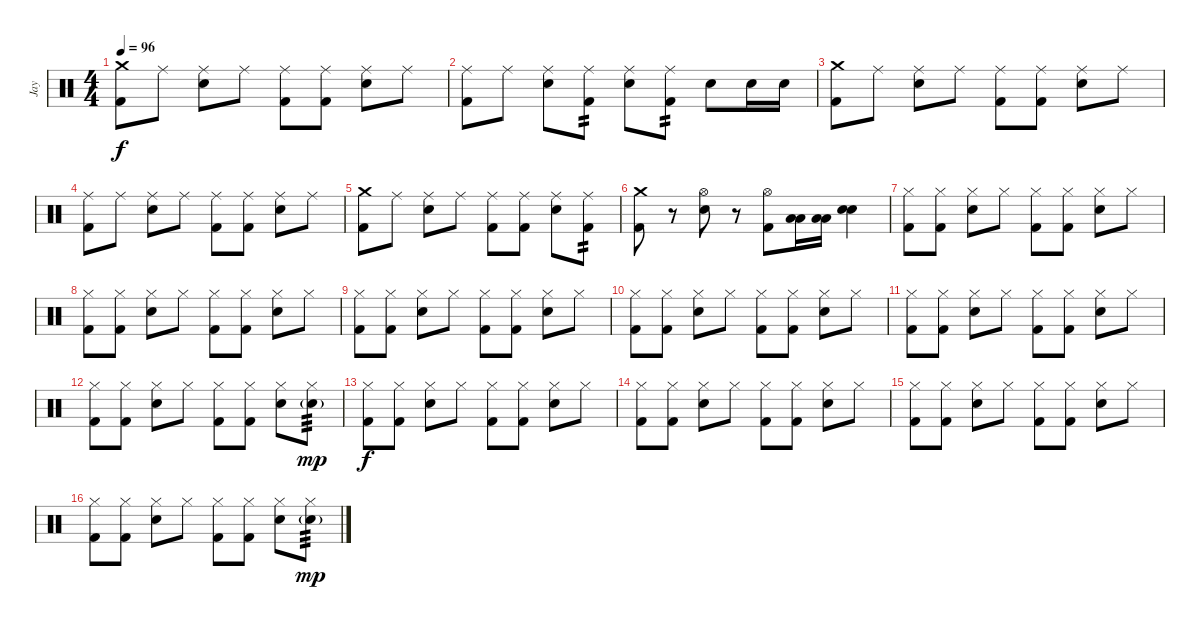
\track ("Jay" "Jay") {instrument percussion}
\staff {score}
\articulation defaults
\ts (4 4)
\tempo 96
\clef neutral
\ks c
("Crash medium (hit)" "Kick (hit) 2").8{dy f} "Ride (middle)".8 ("Ride (middle)" "Electric Snare (hit)").8 "Ride (middle)".8 ("Ride (middle)" "Kick (hit) 2").8 ("Ride (middle)" "Kick (hit) 2").8 ("Ride (middle)" "Electric Snare (hit)").8 "Ride (middle)".8 |
("Ride (middle)" "Kick (hit) 2").8 "Ride (middle)".8 ("Ride (middle)" "Electric Snare (hit)").8 ("Ride (middle)" "Kick (hit) 2").8{tp 2} ("Ride (middle)" "Electric Snare (hit)").8 ("Ride (middle)" "Kick (hit) 2").8{tp 2} "Electric Snare (hit)".8 "Electric Snare (hit)".16 "Electric Snare (hit)".16 |
("Crash medium (hit)" "Kick (hit) 2").8 "Ride (middle)".8 ("Ride (middle)" "Electric Snare (hit)").8 "Ride (middle)".8 ("Ride (middle)" "Kick (hit) 2").8 ("Ride (middle)" "Kick (hit) 2").8 ("Ride (middle)" "Electric Snare (hit)").8 "Ride (middle)".8 |
("Ride (middle)" "Kick (hit) 2").8 "Ride (middle)".8 ("Ride (middle)" "Electric Snare (hit)").8 "Ride (middle)".8 ("Ride (middle)" "Kick (hit) 2").8 ("Ride (middle)" "Kick (hit) 2").8 ("Ride (middle)" "Electric Snare (hit)").8 "Ride (middle)".8 |
("Crash medium (hit)" "Kick (hit) 2").8 "Ride (middle)".8 ("Ride (middle)" "Electric Snare (hit)").8 "Ride (middle)".8 ("Ride (middle)" "Kick (hit) 2").8 ("Ride (middle)" "Kick (hit) 2").8 ("Ride (middle)" "Electric Snare (hit)").8 ("Ride (middle)" "Kick (hit) 2").8{tp 2} |
("Crash medium (hit)" "Kick (hit) 2").8 r.8 ("Hi-Hat (open)" "Electric Snare (hit)").8 r.8 ("Hi-Hat (open)" "Kick (hit) 2").8 ("Low Tom (hit)" "Low Tom (hit)").16 ("Low Tom (hit)" "Low Tom (hit)").16 ("Electric Snare (hit)" "Electric Snare (hit)").4 |
("Hi-Hat (closed)" "Kick (hit) 2").8 ("Hi-Hat (closed)" "Kick (hit) 2").8 ("Hi-Hat (closed)" "Electric Snare (hit)").8 "Hi-Hat (closed)".8 ("Hi-Hat (closed)" "Kick (hit) 2").8 ("Hi-Hat (closed)" "Kick (hit) 2").8 ("Hi-Hat (closed)" "Electric Snare (hit)").8 "Hi-Hat (closed)".8 |
("Hi-Hat (closed)" "Kick (hit) 2").8 ("Hi-Hat (closed)" "Kick (hit) 2").8 ("Hi-Hat (closed)" "Electric Snare (hit)").8 "Hi-Hat (closed)".8 ("Hi-Hat (closed)" "Kick (hit) 2").8 ("Hi-Hat (closed)" "Kick (hit) 2").8 ("Hi-Hat (closed)" "Electric Snare (hit)").8 "Hi-Hat (closed)".8 |
("Hi-Hat (closed)" "Kick (hit) 2").8 ("Hi-Hat (closed)" "Kick (hit) 2").8 ("Hi-Hat (closed)" "Electric Snare (hit)").8 "Hi-Hat (closed)".8 ("Hi-Hat (closed)" "Kick (hit) 2").8 ("Hi-Hat (closed)" "Kick (hit) 2").8 ("Hi-Hat (closed)" "Electric Snare (hit)").8 "Hi-Hat (closed)".8 |
("Hi-Hat (closed)" "Kick (hit) 2").8 ("Hi-Hat (closed)" "Kick (hit) 2").8 ("Hi-Hat (closed)" "Electric Snare (hit)").8 "Hi-Hat (closed)".8 ("Hi-Hat (closed)" "Kick (hit) 2").8 ("Hi-Hat (closed)" "Kick (hit) 2").8 ("Hi-Hat (closed)" "Electric Snare (hit)").8 "Hi-Hat (closed)".8 |
("Hi-Hat (closed)" "Kick (hit) 2").8 ("Hi-Hat (closed)" "Kick (hit) 2").8 ("Hi-Hat (closed)" "Electric Snare (hit)").8 "Hi-Hat (closed)".8 ("Hi-Hat (closed)" "Kick (hit) 2").8 ("Hi-Hat (closed)" "Kick (hit) 2").8 ("Hi-Hat (closed)" "Electric Snare (hit)").8 "Hi-Hat (closed)".8 |
("Hi-Hat (closed)" "Kick (hit) 2").8 ("Hi-Hat (closed)" "Kick (hit) 2").8 ("Hi-Hat (closed)" "Electric Snare (hit)").8 "Hi-Hat (closed)".8 ("Hi-Hat (closed)" "Kick (hit) 2").8 ("Hi-Hat (closed)" "Kick (hit) 2").8 ("Hi-Hat (closed)" "Electric Snare (hit)").8 ("Hi-Hat (closed)" "Electric Snare (hit)"{g}).8{tp 3 dy mp} |
("Hi-Hat (closed)" "Kick (hit) 2").8{dy f} ("Hi-Hat (closed)" "Kick (hit) 2").8 ("Hi-Hat (closed)" "Electric Snare (hit)").8 "Hi-Hat (closed)".8 ("Hi-Hat (closed)" "Kick (hit) 2").8 ("Hi-Hat (closed)" "Kick (hit) 2").8 ("Hi-Hat (closed)" "Electric Snare (hit)").8 "Hi-Hat (closed)".8 |
("Hi-Hat (closed)" "Kick (hit) 2").8 ("Hi-Hat (closed)" "Kick (hit) 2").8 ("Hi-Hat (closed)" "Electric Snare (hit)").8 "Hi-Hat (closed)".8 ("Hi-Hat (closed)" "Kick (hit) 2").8 ("Hi-Hat (closed)" "Kick (hit) 2").8 ("Hi-Hat (closed)" "Electric Snare (hit)").8 "Hi-Hat (closed)".8 |
("Hi-Hat (closed)" "Kick (hit) 2").8 ("Hi-Hat (closed)" "Kick (hit) 2").8 ("Hi-Hat (closed)" "Electric Snare (hit)").8 "Hi-Hat (closed)".8 ("Hi-Hat (closed)" "Kick (hit) 2").8 ("Hi-Hat (closed)" "Kick (hit) 2").8 ("Hi-Hat (closed)" "Electric Snare (hit)").8 "Hi-Hat (closed)".8 |
("Hi-Hat (closed)" "Kick (hit) 2").8 ("Hi-Hat (closed)" "Kick (hit) 2").8 ("Hi-Hat (closed)" "Electric Snare (hit)").8 "Hi-Hat (closed)".8 ("Hi-Hat (closed)" "Kick (hit) 2").8 ("Hi-Hat (closed)" "Kick (hit) 2").8 ("Hi-Hat (closed)" "Electric Snare (hit)").8 ("Hi-Hat (closed)" "Electric Snare (hit)"{g}).8{tp 3 dy mp}
